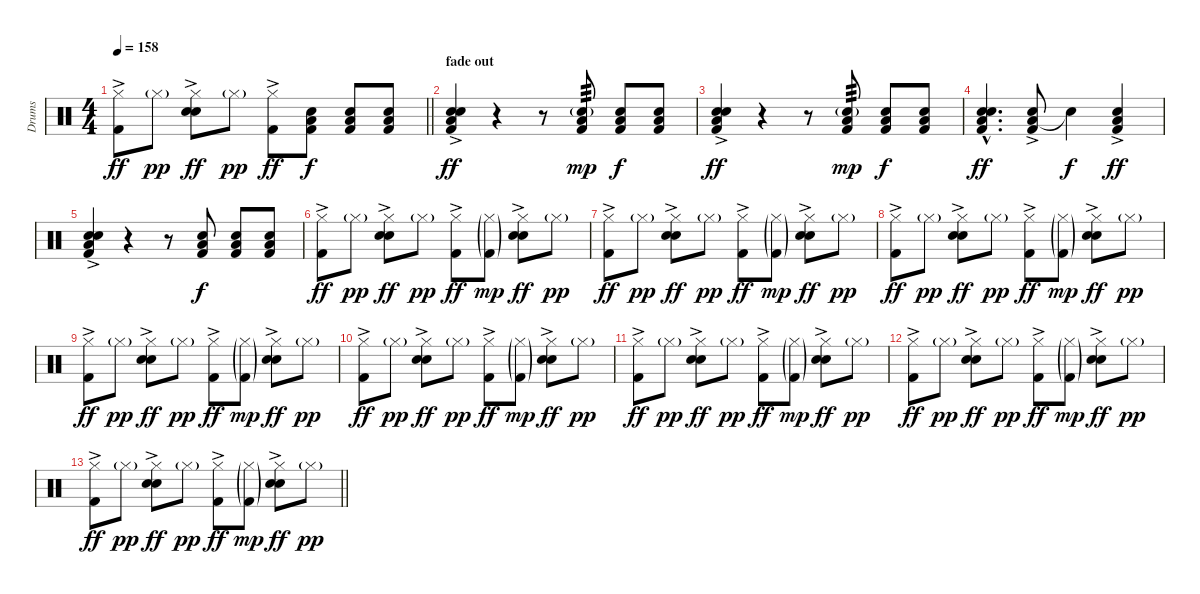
\track ("Drums" "Drums") {instrument percussion}
\staff {score}
\articulation defaults
\ts (4 4)
\tempo 158
\clef neutral
\barLineRight lightlight
\ks c
("Hi-Hat (closed)" "Kick (hit) 2"{ac}).8{dy ff} "Hi-Hat (closed)"{g}.8{dy pp} ("Hi-Hat (closed)" "Electric Snare (hit)"{ac} "Snare (hit) 2").8{dy ff} "Hi-Hat (closed)"{g}.8{dy pp} ("Hi-Hat (closed)" "Kick (hit) 2"{ac}).8{dy ff} ("Low Floor Tom (hit)" "Snare (hit) 2" "Kick (hit) 2").8{dy f} ("Low Floor Tom (hit)" "Snare (hit) 2" "Kick (hit) 2").8 ("Low Floor Tom (hit)" "Snare (hit) 2" "Kick (hit) 2").8 |
\section ("" "fade out")
("Low Floor Tom (hit)" "Electric Snare (hit)"{ac} "Snare (hit) 2" "Kick (hit) 2").4{dy ff} r.4 r.8 ("Low Floor Tom (hit)" "Snare (hit) 2"{g} "Kick (hit) 2").8{tp 3 dy mp} ("Low Floor Tom (hit)" "Snare (hit) 2" "Kick (hit) 2").8{dy f} ("Low Floor Tom (hit)" "Snare (hit) 2" "Kick (hit) 2").8 |
("Low Floor Tom (hit)" "Electric Snare (hit)"{ac} "Snare (hit) 2" "Kick (hit) 2").4{dy ff} r.4 r.8 ("Low Floor Tom (hit)" "Snare (hit) 2"{g} "Kick (hit) 2").8{tp 3 dy mp} ("Low Floor Tom (hit)" "Snare (hit) 2" "Kick (hit) 2").8{dy f} ("Low Floor Tom (hit)" "Snare (hit) 2" "Kick (hit) 2").8 |
("Low Floor Tom (hit)"{hac} "Electric Snare (hit)"{hac} "Snare (hit) 2"{hac} "Kick (hit) 2"{hac}).4{d dy ff} ("Low Floor Tom (hit)" "Snare (hit) 2" "Kick (hit) 2"{ac}).8 "Snare (hit)"{t}.4{dy f} ("Low Floor Tom (hit)" "Snare (hit) 2" "Kick (hit) 2"{ac}).4{dy ff} |
("Low Floor Tom (hit)" "Electric Snare (hit)"{ac} "Snare (hit) 2" "Kick (hit) 2").4 r.4 r.8 ("Low Floor Tom (hit)" "Snare (hit) 2" "Kick (hit) 2").8{dy f} ("Low Floor Tom (hit)" "Snare (hit) 2" "Kick (hit) 2").8 ("Low Floor Tom (hit)" "Snare (hit) 2" "Kick (hit) 2").8 |
("Hi-Hat (closed)" "Kick (hit) 2"{ac}).8{dy ff} "Hi-Hat (closed)"{g}.8{dy pp} ("Hi-Hat (closed)" "Electric Snare (hit)"{ac} "Snare (hit) 2").8{dy ff} "Hi-Hat (closed)"{g}.8{dy pp} ("Hi-Hat (closed)" "Kick (hit) 2"{ac}).8{dy ff} ("Hi-Hat (closed)"{g} "Kick (hit) 2"{g}).8{dy mp} ("Hi-Hat (closed)" "Electric Snare (hit)"{ac} "Snare (hit) 2").8{dy ff} "Hi-Hat (closed)"{g}.8{dy pp} |
("Hi-Hat (closed)" "Kick (hit) 2"{ac}).8{dy ff} "Hi-Hat (closed)"{g}.8{dy pp} ("Hi-Hat (closed)" "Electric Snare (hit)"{ac} "Snare (hit) 2").8{dy ff} "Hi-Hat (closed)"{g}.8{dy pp} ("Hi-Hat (closed)" "Kick (hit) 2"{ac}).8{dy ff} ("Hi-Hat (closed)"{g} "Kick (hit) 2"{g}).8{dy mp} ("Hi-Hat (closed)" "Electric Snare (hit)"{ac} "Snare (hit) 2").8{dy ff} "Hi-Hat (closed)"{g}.8{dy pp} |
("Hi-Hat (closed)" "Kick (hit) 2"{ac}).8{dy ff} "Hi-Hat (closed)"{g}.8{dy pp} ("Hi-Hat (closed)" "Electric Snare (hit)"{ac} "Snare (hit) 2").8{dy ff} "Hi-Hat (closed)"{g}.8{dy pp} ("Hi-Hat (closed)" "Kick (hit) 2"{ac}).8{dy ff} ("Hi-Hat (closed)"{g} "Kick (hit) 2"{g}).8{dy mp} ("Hi-Hat (closed)" "Electric Snare (hit)"{ac} "Snare (hit) 2").8{dy ff} "Hi-Hat (closed)"{g}.8{dy pp} |
("Hi-Hat (closed)" "Kick (hit) 2"{ac}).8{dy ff} "Hi-Hat (closed)"{g}.8{dy pp} ("Hi-Hat (closed)" "Electric Snare (hit)"{ac} "Snare (hit) 2").8{dy ff} "Hi-Hat (closed)"{g}.8{dy pp} ("Hi-Hat (closed)" "Kick (hit) 2"{ac}).8{dy ff} ("Hi-Hat (closed)"{g} "Kick (hit) 2"{g}).8{dy mp} ("Hi-Hat (closed)" "Electric Snare (hit)"{ac} "Snare (hit) 2").8{dy ff} "Hi-Hat (closed)"{g}.8{dy pp} |
("Hi-Hat (closed)" "Kick (hit) 2"{ac}).8{dy ff} "Hi-Hat (closed)"{g}.8{dy pp} ("Hi-Hat (closed)" "Electric Snare (hit)"{ac} "Snare (hit) 2").8{dy ff} "Hi-Hat (closed)"{g}.8{dy pp} ("Hi-Hat (closed)" "Kick (hit) 2"{ac}).8{dy ff} ("Hi-Hat (closed)"{g} "Kick (hit) 2"{g}).8{dy mp} ("Hi-Hat (closed)" "Electric Snare (hit)"{ac} "Snare (hit) 2").8{dy ff} "Hi-Hat (closed)"{g}.8{dy pp} |
("Hi-Hat (closed)" "Kick (hit) 2"{ac}).8{dy ff} "Hi-Hat (closed)"{g}.8{dy pp} ("Hi-Hat (closed)" "Electric Snare (hit)"{ac} "Snare (hit) 2").8{dy ff} "Hi-Hat (closed)"{g}.8{dy pp} ("Hi-Hat (closed)" "Kick (hit) 2"{ac}).8{dy ff} ("Hi-Hat (closed)"{g} "Kick (hit) 2"{g}).8{dy mp} ("Hi-Hat (closed)" "Electric Snare (hit)"{ac} "Snare (hit) 2").8{dy ff} "Hi-Hat (closed)"{g}.8{dy pp} |
("Hi-Hat (closed)" "Kick (hit) 2"{ac}).8{dy ff} "Hi-Hat (closed)"{g}.8{dy pp} ("Hi-Hat (closed)" "Electric Snare (hit)"{ac} "Snare (hit) 2").8{dy ff} "Hi-Hat (closed)"{g}.8{dy pp} ("Hi-Hat (closed)" "Kick (hit) 2"{ac}).8{dy ff} ("Hi-Hat (closed)"{g} "Kick (hit) 2"{g}).8{dy mp} ("Hi-Hat (closed)" "Electric Snare (hit)"{ac} "Snare (hit) 2").8{dy ff} "Hi-Hat (closed)"{g}.8{dy pp} |
\barLineRight lightlight
("Hi-Hat (closed)" "Kick (hit) 2"{ac}).8{dy ff} "Hi-Hat (closed)"{g}.8{dy pp} ("Hi-Hat (closed)" "Electric Snare (hit)"{ac} "Snare (hit) 2").8{dy ff} "Hi-Hat (closed)"{g}.8{dy pp} ("Hi-Hat (closed)" "Kick (hit) 2"{ac}).8{dy ff} ("Hi-Hat (closed)"{g} "Kick (hit) 2"{g}).8{dy mp} ("Hi-Hat (closed)" "Electric Snare (hit)"{ac} "Snare (hit) 2").8{dy ff} "Hi-Hat (closed)"{g}.8{dy pp}
